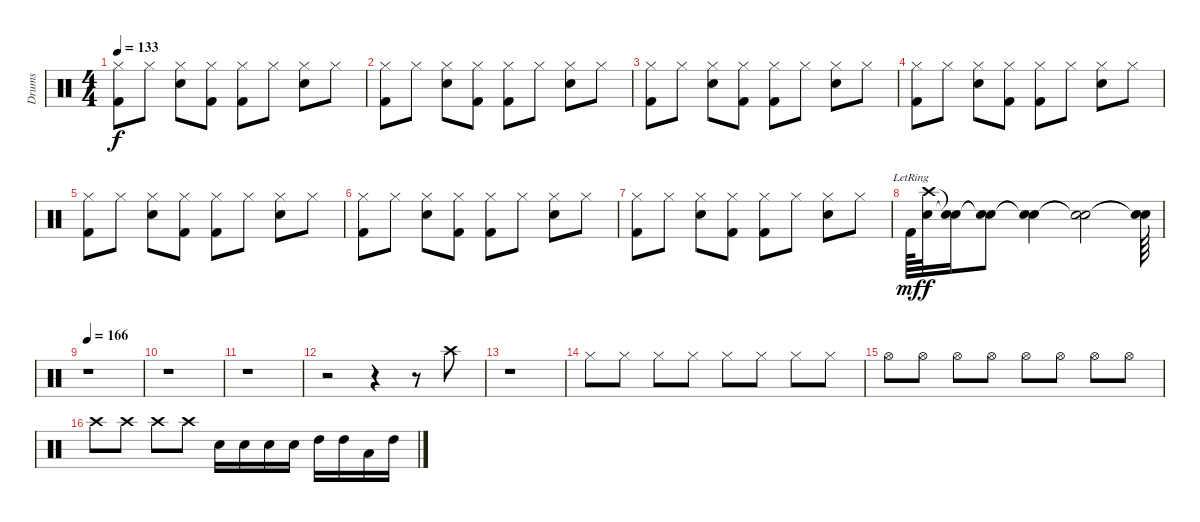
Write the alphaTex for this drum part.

\track ("Drums" "Drums") {instrument percussion}
\staff {score}
\articulation defaults
\ts (4 4)
\tempo 133
\clef neutral
\ks c
("Kick (hit) 2" "Hi-Hat (closed)").8{dy f} "Hi-Hat (closed)".8 ("Snare (hit) 2" "Hi-Hat (closed)").8 ("Kick (hit) 2" "Hi-Hat (closed)").8 ("Kick (hit) 2" "Hi-Hat (closed)").8 "Hi-Hat (closed)".8 ("Snare (hit) 2" "Hi-Hat (closed)").8 "Hi-Hat (closed)".8 |
("Kick (hit) 2" "Hi-Hat (closed)").8 "Hi-Hat (closed)".8 ("Snare (hit) 2" "Hi-Hat (closed)").8 ("Kick (hit) 2" "Hi-Hat (closed)").8 ("Kick (hit) 2" "Hi-Hat (closed)").8 "Hi-Hat (closed)".8 ("Snare (hit) 2" "Hi-Hat (closed)").8 "Hi-Hat (closed)".8 |
("Kick (hit) 2" "Hi-Hat (closed)").8 "Hi-Hat (closed)".8 ("Snare (hit) 2" "Hi-Hat (closed)").8 ("Kick (hit) 2" "Hi-Hat (closed)").8 ("Kick (hit) 2" "Hi-Hat (closed)").8 "Hi-Hat (closed)".8 ("Snare (hit) 2" "Hi-Hat (closed)").8 "Hi-Hat (closed)".8 |
("Kick (hit) 2" "Hi-Hat (closed)").8 "Hi-Hat (closed)".8 ("Snare (hit) 2" "Hi-Hat (closed)").8 ("Kick (hit) 2" "Hi-Hat (closed)").8 ("Kick (hit) 2" "Hi-Hat (closed)").8 "Hi-Hat (closed)".8 ("Snare (hit) 2" "Hi-Hat (closed)").8 "Hi-Hat (closed)".8 |
("Kick (hit) 2" "Hi-Hat (closed)").8 "Hi-Hat (closed)".8 ("Snare (hit) 2" "Hi-Hat (closed)").8 ("Kick (hit) 2" "Hi-Hat (closed)").8 ("Kick (hit) 2" "Hi-Hat (closed)").8 "Hi-Hat (closed)".8 ("Snare (hit) 2" "Hi-Hat (closed)").8 "Hi-Hat (closed)".8 |
("Kick (hit) 2" "Hi-Hat (closed)").8 "Hi-Hat (closed)".8 ("Snare (hit) 2" "Hi-Hat (closed)").8 ("Kick (hit) 2" "Hi-Hat (closed)").8 ("Kick (hit) 2" "Hi-Hat (closed)").8 "Hi-Hat (closed)".8 ("Snare (hit) 2" "Hi-Hat (closed)").8 "Hi-Hat (closed)".8 |
("Kick (hit) 2" "Hi-Hat (closed)").8 "Hi-Hat (closed)".8 ("Snare (hit) 2" "Hi-Hat (closed)").8 ("Kick (hit) 2" "Hi-Hat (closed)").8 ("Kick (hit) 2" "Hi-Hat (closed)").8 "Hi-Hat (closed)".8 ("Snare (hit) 2" "Hi-Hat (closed)").8 "Hi-Hat (closed)".8 |
"Kick (hit) 2"{lr}.64{dy mf} ("Snare (hit) 2"{lr} "Crash high (hit)").32{dy f} ("Snare (hit)"{t} "Snare (hit)"{t}).16 ("Snare (hit)"{t} "Snare (hit)"{t}).8 ("Snare (hit)"{t} "Snare (hit)"{t}).4 ("Snare (hit)"{t} "Snare (hit)"{t}).2 ("Snare (hit)"{t} "Snare (hit)"{t}).64 |
\tempo 166
r.1 |
r.1 |
r.1 |
r.2 r.4 r.8 "Crash high (hit)".8 |
r.1 |
"Hi-Hat (closed)".8 "Hi-Hat (closed)".8 "Hi-Hat (closed)".8 "Hi-Hat (closed)".8 "Hi-Hat (closed)".8 "Hi-Hat (closed)".8 "Hi-Hat (closed)".8 "Hi-Hat (closed)".8 |
"Hi-Hat (open)".8 "Hi-Hat (open)".8 "Hi-Hat (open)".8 "Hi-Hat (open)".8 "Hi-Hat (open)".8 "Hi-Hat (open)".8 "Hi-Hat (open)".8 "Hi-Hat (open)".8 |
"Crash high (hit)".8 "Crash high (hit)".8 "Crash high (hit)".8 "Crash high (hit)".8 "Snare (hit) 2".16 "Snare (hit) 2".16 "Snare (hit) 2".16 "Snare (hit) 2".16 "High Tom (hit)".16 "High Tom (hit)".16 "Low Tom (hit)".16 "High Tom (hit)".16
